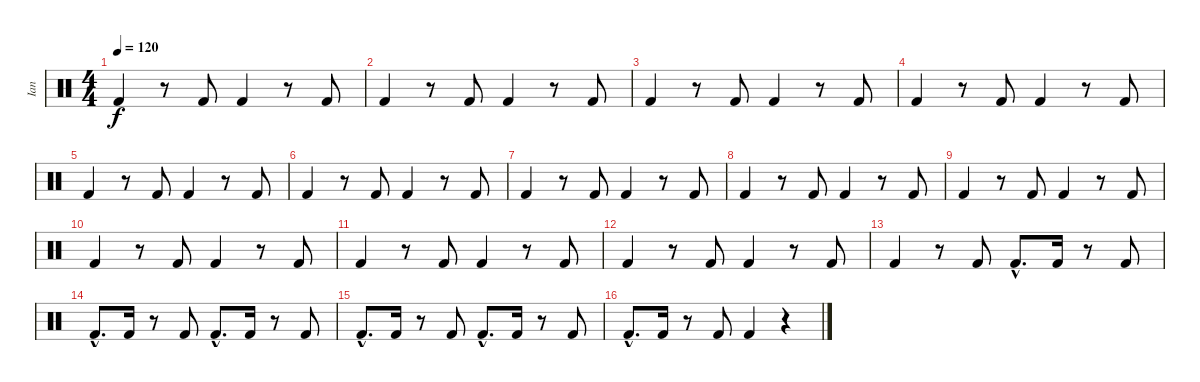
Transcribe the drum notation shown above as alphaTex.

\track ("Ian" "Ian") {instrument percussion}
\staff {score}
\articulation defaults
\ts (4 4)
\tempo 120
\clef neutral
\ks c "Kick (hit) 2".4{dy f}
r.8 "Kick (hit) 2".8 "Kick (hit) 2".4 r.8 "Kick (hit) 2".8 |
"Kick (hit) 2".4 r.8 "Kick (hit) 2".8 "Kick (hit) 2".4 r.8 "Kick (hit) 2".8 |
"Kick (hit) 2".4 r.8 "Kick (hit) 2".8 "Kick (hit) 2".4 r.8 "Kick (hit) 2".8 |
"Kick (hit) 2".4 r.8 "Kick (hit) 2".8 "Kick (hit) 2".4 r.8 "Kick (hit) 2".8 |
"Kick (hit) 2".4 r.8 "Kick (hit) 2".8 "Kick (hit) 2".4 r.8 "Kick (hit) 2".8 |
"Kick (hit) 2".4 r.8 "Kick (hit) 2".8 "Kick (hit) 2".4 r.8 "Kick (hit) 2".8 |
"Kick (hit) 2".4 r.8 "Kick (hit) 2".8 "Kick (hit) 2".4 r.8 "Kick (hit) 2".8 |
"Kick (hit) 2".4 r.8 "Kick (hit) 2".8 "Kick (hit) 2".4 r.8 "Kick (hit) 2".8 |
"Kick (hit) 2".4 r.8 "Kick (hit) 2".8 "Kick (hit) 2".4 r.8 "Kick (hit) 2".8 |
"Kick (hit) 2".4 r.8 "Kick (hit) 2".8 "Kick (hit) 2".4 r.8 "Kick (hit) 2".8 |
"Kick (hit) 2".4 r.8 "Kick (hit) 2".8 "Kick (hit) 2".4 r.8 "Kick (hit) 2".8 |
"Kick (hit) 2".4 r.8 "Kick (hit) 2".8 "Kick (hit) 2".4 r.8 "Kick (hit) 2".8 |
"Kick (hit) 2".4 r.8 "Kick (hit) 2".8 "Kick (hit) 2"{hac}.8{d} "Kick (hit) 2".16 r.8 "Kick (hit) 2".8 |
"Kick (hit) 2"{hac}.8{d} "Kick (hit) 2".16 r.8 "Kick (hit) 2".8 "Kick (hit) 2"{hac}.8{d} "Kick (hit) 2".16 r.8 "Kick (hit) 2".8 |
"Kick (hit) 2"{hac}.8{d} "Kick (hit) 2".16 r.8 "Kick (hit) 2".8 "Kick (hit) 2"{hac}.8{d} "Kick (hit) 2".16 r.8 "Kick (hit) 2".8 |
"Kick (hit) 2"{hac}.8{d} "Kick (hit) 2".16 r.8 "Kick (hit) 2".8 "Kick (hit) 2".4 r.4
